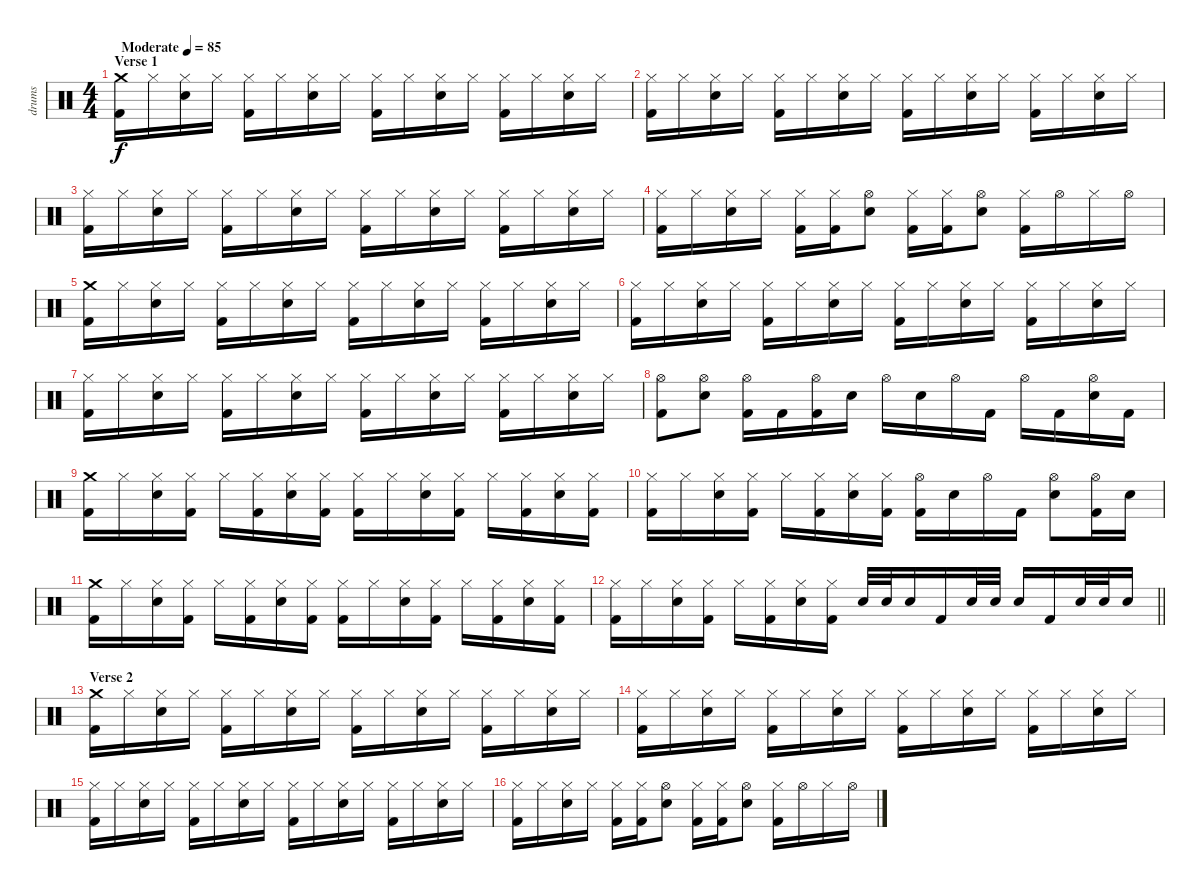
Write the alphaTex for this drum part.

\track ("drums" "drums") {instrument percussion}
\staff {score}
\articulation defaults
\ts (4 4)
\section ("" "Verse 1")
\tempo (85 "Moderate")
\clef neutral
\ks c
("Crash medium (hit)" "Kick (hit) 2").16{dy f} "Hi-Hat (closed)".16 ("Hi-Hat (closed)" "Electric Snare (hit)").16 "Hi-Hat (closed)".16 ("Hi-Hat (closed)" "Kick (hit) 2").16 "Hi-Hat (closed)".16 ("Hi-Hat (closed)" "Electric Snare (hit)").16 "Hi-Hat (closed)".16 ("Hi-Hat (closed)" "Kick (hit) 2").16 "Hi-Hat (closed)".16 ("Hi-Hat (closed)" "Electric Snare (hit)").16 "Hi-Hat (closed)".16 ("Hi-Hat (closed)" "Kick (hit) 2").16 "Hi-Hat (closed)".16 ("Hi-Hat (closed)" "Electric Snare (hit)").16 "Hi-Hat (closed)".16 |
("Hi-Hat (closed)" "Kick (hit) 2").16 "Hi-Hat (closed)".16 ("Hi-Hat (closed)" "Electric Snare (hit)").16 "Hi-Hat (closed)".16 ("Hi-Hat (closed)" "Kick (hit) 2").16 "Hi-Hat (closed)".16 ("Hi-Hat (closed)" "Electric Snare (hit)").16 "Hi-Hat (closed)".16 ("Hi-Hat (closed)" "Kick (hit) 2").16 "Hi-Hat (closed)".16 ("Hi-Hat (closed)" "Electric Snare (hit)").16 "Hi-Hat (closed)".16 ("Hi-Hat (closed)" "Kick (hit) 2").16 "Hi-Hat (closed)".16 ("Hi-Hat (closed)" "Electric Snare (hit)").16 "Hi-Hat (closed)".16 |
("Hi-Hat (closed)" "Kick (hit) 2").16 "Hi-Hat (closed)".16 ("Hi-Hat (closed)" "Electric Snare (hit)").16 "Hi-Hat (closed)".16 ("Hi-Hat (closed)" "Kick (hit) 2").16 "Hi-Hat (closed)".16 ("Hi-Hat (closed)" "Electric Snare (hit)").16 "Hi-Hat (closed)".16 ("Hi-Hat (closed)" "Kick (hit) 2").16 "Hi-Hat (closed)".16 ("Hi-Hat (closed)" "Electric Snare (hit)").16 "Hi-Hat (closed)".16 ("Hi-Hat (closed)" "Kick (hit) 2").16 "Hi-Hat (closed)".16 ("Hi-Hat (closed)" "Electric Snare (hit)").16 "Hi-Hat (closed)".16 |
("Hi-Hat (closed)" "Kick (hit) 2").16 "Hi-Hat (closed)".16 ("Hi-Hat (closed)" "Electric Snare (hit)").16 "Hi-Hat (closed)".16 ("Hi-Hat (closed)" "Kick (hit) 2").16 ("Hi-Hat (closed)" "Kick (hit) 2").16 ("Hi-Hat (open)" "Electric Snare (hit)").8 ("Hi-Hat (closed)" "Kick (hit) 2").16 ("Hi-Hat (closed)" "Kick (hit) 2").16 ("Hi-Hat (open)" "Electric Snare (hit)").8 ("Hi-Hat (closed)" "Kick (hit) 2").16 "Hi-Hat (open)".16 "Hi-Hat (closed)".16 "Hi-Hat (open)".16 |
("Crash medium (hit)" "Kick (hit) 2").16 "Hi-Hat (closed)".16 ("Hi-Hat (closed)" "Electric Snare (hit)").16 "Hi-Hat (closed)".16 ("Hi-Hat (closed)" "Kick (hit) 2").16 "Hi-Hat (closed)".16 ("Hi-Hat (closed)" "Electric Snare (hit)").16 "Hi-Hat (closed)".16 ("Hi-Hat (closed)" "Kick (hit) 2").16 "Hi-Hat (closed)".16 ("Hi-Hat (closed)" "Electric Snare (hit)").16 "Hi-Hat (closed)".16 ("Hi-Hat (closed)" "Kick (hit) 2").16 "Hi-Hat (closed)".16 ("Hi-Hat (closed)" "Electric Snare (hit)").16 "Hi-Hat (closed)".16 |
("Hi-Hat (closed)" "Kick (hit) 2").16 "Hi-Hat (closed)".16 ("Hi-Hat (closed)" "Electric Snare (hit)").16 "Hi-Hat (closed)".16 ("Hi-Hat (closed)" "Kick (hit) 2").16 "Hi-Hat (closed)".16 ("Hi-Hat (closed)" "Electric Snare (hit)").16 "Hi-Hat (closed)".16 ("Hi-Hat (closed)" "Kick (hit) 2").16 "Hi-Hat (closed)".16 ("Hi-Hat (closed)" "Electric Snare (hit)").16 "Hi-Hat (closed)".16 ("Hi-Hat (closed)" "Kick (hit) 2").16 "Hi-Hat (closed)".16 ("Hi-Hat (closed)" "Electric Snare (hit)").16 "Hi-Hat (closed)".16 |
("Hi-Hat (closed)" "Kick (hit) 2").16 "Hi-Hat (closed)".16 ("Hi-Hat (closed)" "Electric Snare (hit)").16 "Hi-Hat (closed)".16 ("Hi-Hat (closed)" "Kick (hit) 2").16 "Hi-Hat (closed)".16 ("Hi-Hat (closed)" "Electric Snare (hit)").16 "Hi-Hat (closed)".16 ("Hi-Hat (closed)" "Kick (hit) 2").16 "Hi-Hat (closed)".16 ("Hi-Hat (closed)" "Electric Snare (hit)").16 "Hi-Hat (closed)".16 ("Hi-Hat (closed)" "Kick (hit) 2").16 "Hi-Hat (closed)".16 ("Hi-Hat (closed)" "Electric Snare (hit)").16 "Hi-Hat (closed)".16 |
("Hi-Hat (open)" "Kick (hit) 2").8 ("Hi-Hat (open)" "Electric Snare (hit)").8 ("Hi-Hat (open)" "Kick (hit) 2").16 "Kick (hit) 2".16 ("Hi-Hat (open)" "Kick (hit) 2").16 "Electric Snare (hit)".16 "Hi-Hat (open)".16 "Electric Snare (hit)".16 "Hi-Hat (open)".16 "Kick (hit) 2".16 "Hi-Hat (open)".16 "Kick (hit) 2".16 ("Hi-Hat (open)" "Electric Snare (hit)").16 "Kick (hit) 2".16 |
("Crash medium (hit)" "Kick (hit) 2").16 "Hi-Hat (closed)".16 ("Hi-Hat (closed)" "Electric Snare (hit)").16 ("Hi-Hat (closed)" "Kick (hit) 2").16 "Hi-Hat (closed)".16 ("Hi-Hat (closed)" "Kick (hit) 2").16 ("Hi-Hat (closed)" "Electric Snare (hit)").16 ("Hi-Hat (closed)" "Kick (hit) 2").16 ("Hi-Hat (closed)" "Kick (hit) 2").16 "Hi-Hat (closed)".16 ("Hi-Hat (closed)" "Electric Snare (hit)").16 ("Hi-Hat (closed)" "Kick (hit) 2").16 "Hi-Hat (closed)".16 ("Hi-Hat (closed)" "Kick (hit) 2").16 ("Hi-Hat (closed)" "Electric Snare (hit)").16 ("Hi-Hat (closed)" "Kick (hit) 2").16 |
("Hi-Hat (closed)" "Kick (hit) 2").16 "Hi-Hat (closed)".16 ("Hi-Hat (closed)" "Electric Snare (hit)").16 ("Hi-Hat (closed)" "Kick (hit) 2").16 "Hi-Hat (closed)".16 ("Hi-Hat (closed)" "Kick (hit) 2").16 ("Hi-Hat (closed)" "Electric Snare (hit)").16 ("Hi-Hat (closed)" "Kick (hit) 2").16 ("Hi-Hat (open)" "Kick (hit) 2").16 "Electric Snare (hit)".16 "Hi-Hat (open)".16 "Kick (hit) 2".16 ("Hi-Hat (open)" "Electric Snare (hit)").8 ("Hi-Hat (open)" "Kick (hit) 2").16 "Electric Snare (hit)".16 |
("Crash medium (hit)" "Kick (hit) 2").16 "Hi-Hat (closed)".16 ("Hi-Hat (closed)" "Electric Snare (hit)").16 ("Hi-Hat (closed)" "Kick (hit) 2").16 "Hi-Hat (closed)".16 ("Hi-Hat (closed)" "Kick (hit) 2").16 ("Hi-Hat (closed)" "Electric Snare (hit)").16 ("Hi-Hat (closed)" "Kick (hit) 2").16 ("Hi-Hat (closed)" "Kick (hit) 2").16 "Hi-Hat (closed)".16 ("Hi-Hat (closed)" "Electric Snare (hit)").16 ("Hi-Hat (closed)" "Kick (hit) 2").16 "Hi-Hat (closed)".16 ("Hi-Hat (closed)" "Kick (hit) 2").16 ("Hi-Hat (closed)" "Electric Snare (hit)").16 ("Hi-Hat (closed)" "Kick (hit) 2").16 |
\barLineRight lightlight
("Hi-Hat (closed)" "Kick (hit) 2").16 "Hi-Hat (closed)".16 ("Hi-Hat (closed)" "Electric Snare (hit)").16 ("Hi-Hat (closed)" "Kick (hit) 2").16 "Hi-Hat (closed)".16 ("Hi-Hat (closed)" "Kick (hit) 2").16 ("Hi-Hat (closed)" "Electric Snare (hit)").16 ("Hi-Hat (closed)" "Kick (hit) 2").16 "Electric Snare (hit)".32 "Electric Snare (hit)".32 "Electric Snare (hit)".16 "Kick (hit) 2".16 "Electric Snare (hit)".32 "Electric Snare (hit)".32 "Electric Snare (hit)".16 "Kick (hit) 2".16 "Electric Snare (hit)".32 "Electric Snare (hit)".32 "Electric Snare (hit)".16 |
\section ("" "Verse 2")
("Crash medium (hit)" "Kick (hit) 2").16 "Hi-Hat (closed)".16 ("Hi-Hat (closed)" "Electric Snare (hit)").16 "Hi-Hat (closed)".16 ("Hi-Hat (closed)" "Kick (hit) 2").16 "Hi-Hat (closed)".16 ("Hi-Hat (closed)" "Electric Snare (hit)").16 "Hi-Hat (closed)".16 ("Hi-Hat (closed)" "Kick (hit) 2").16 "Hi-Hat (closed)".16 ("Hi-Hat (closed)" "Electric Snare (hit)").16 "Hi-Hat (closed)".16 ("Hi-Hat (closed)" "Kick (hit) 2").16 "Hi-Hat (closed)".16 ("Hi-Hat (closed)" "Electric Snare (hit)").16 "Hi-Hat (closed)".16 |
("Hi-Hat (closed)" "Kick (hit) 2").16 "Hi-Hat (closed)".16 ("Hi-Hat (closed)" "Electric Snare (hit)").16 "Hi-Hat (closed)".16 ("Hi-Hat (closed)" "Kick (hit) 2").16 "Hi-Hat (closed)".16 ("Hi-Hat (closed)" "Electric Snare (hit)").16 "Hi-Hat (closed)".16 ("Hi-Hat (closed)" "Kick (hit) 2").16 "Hi-Hat (closed)".16 ("Hi-Hat (closed)" "Electric Snare (hit)").16 "Hi-Hat (closed)".16 ("Hi-Hat (closed)" "Kick (hit) 2").16 "Hi-Hat (closed)".16 ("Hi-Hat (closed)" "Electric Snare (hit)").16 "Hi-Hat (closed)".16 |
("Hi-Hat (closed)" "Kick (hit) 2").16 "Hi-Hat (closed)".16 ("Hi-Hat (closed)" "Electric Snare (hit)").16 "Hi-Hat (closed)".16 ("Hi-Hat (closed)" "Kick (hit) 2").16 "Hi-Hat (closed)".16 ("Hi-Hat (closed)" "Electric Snare (hit)").16 "Hi-Hat (closed)".16 ("Hi-Hat (closed)" "Kick (hit) 2").16 "Hi-Hat (closed)".16 ("Hi-Hat (closed)" "Electric Snare (hit)").16 "Hi-Hat (closed)".16 ("Hi-Hat (closed)" "Kick (hit) 2").16 "Hi-Hat (closed)".16 ("Hi-Hat (closed)" "Electric Snare (hit)").16 "Hi-Hat (closed)".16 |
("Hi-Hat (closed)" "Kick (hit) 2").16 "Hi-Hat (closed)".16 ("Hi-Hat (closed)" "Electric Snare (hit)").16 "Hi-Hat (closed)".16 ("Hi-Hat (closed)" "Kick (hit) 2").16 ("Hi-Hat (closed)" "Kick (hit) 2").16 ("Hi-Hat (open)" "Electric Snare (hit)").8 ("Hi-Hat (closed)" "Kick (hit) 2").16 ("Hi-Hat (closed)" "Kick (hit) 2").16 ("Hi-Hat (open)" "Electric Snare (hit)").8 ("Hi-Hat (closed)" "Kick (hit) 2").16 "Hi-Hat (open)".16 "Hi-Hat (closed)".16 "Hi-Hat (open)".16
